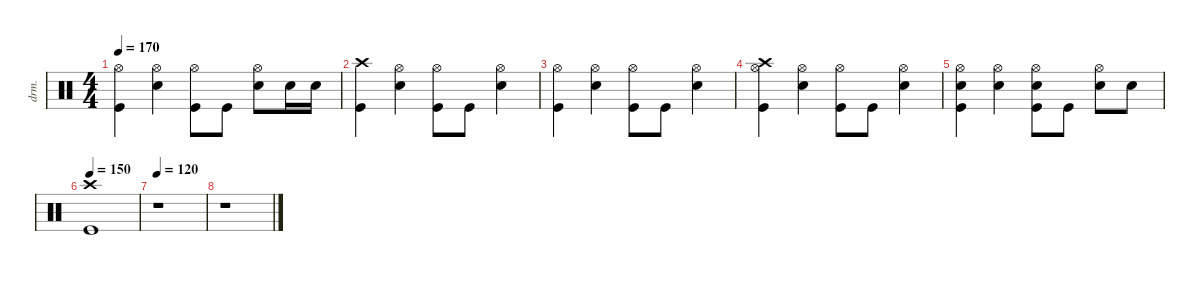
\defaultSystemsLayout 4
\hideDynamics
\bracketExtendMode nobrackets
\otherSystemsTrackNameOrientation horizontal
\track ("Drums" "drm.") {instrument percussion}
\staff {score}
\articulation defaults
\ts (4 4)
\tempo 170
\clef neutral
\ks c
("Hi-Hat (open)" "Kick (hit)").4{dy f beam Down} ("Hi-Hat (open)" "Snare (hit) 2").4{beam Down} ("Hi-Hat (open)" "Kick (hit)").8{beam Down} "Kick (hit)".8{beam Down} ("Hi-Hat (open)" "Snare (hit) 2").8{beam Down} "Snare (hit) 2".16{beam Down} "Snare (hit) 2".16{beam Down} |
("Crash high (hit)" "Kick (hit)").4{beam Down} ("Hi-Hat (open)" "Snare (hit) 2").4{beam Down} ("Hi-Hat (open)" "Kick (hit)").8{beam Down} "Kick (hit)".8{beam Down} ("Hi-Hat (open)" "Snare (hit) 2").4{beam Down} |
("Hi-Hat (open)" "Kick (hit)").4{beam Down} ("Hi-Hat (open)" "Snare (hit) 2").4{beam Down} ("Hi-Hat (open)" "Kick (hit)").8{beam Down} "Kick (hit)".8{beam Down} ("Hi-Hat (open)" "Snare (hit) 2").4{beam Down} |
("Hi-Hat (open)" "Crash high (hit)" "Kick (hit)").4{beam Down} ("Hi-Hat (open)" "Snare (hit) 2").4{beam Down} ("Hi-Hat (open)" "Kick (hit)").8{beam Down} "Kick (hit)".8{beam Down} ("Hi-Hat (open)" "Snare (hit) 2").4{beam Down} |
("Hi-Hat (open)" "Snare (hit) 2" "Kick (hit)").4{beam Down} ("Hi-Hat (open)" "Snare (hit) 2").4{beam Down} ("Hi-Hat (open)" "Snare (hit) 2" "Kick (hit)").8{beam Down} "Kick (hit)".8{beam Down} ("Hi-Hat (open)" "Snare (hit) 2").8{beam Down} "Snare (hit) 2".8{beam Down} |
\tempo 150
("Crash high (hit)" "Kick (hit)").1{beam Down} |
\tempo 120
r.1{beam Down} |
r.1{beam Down}
